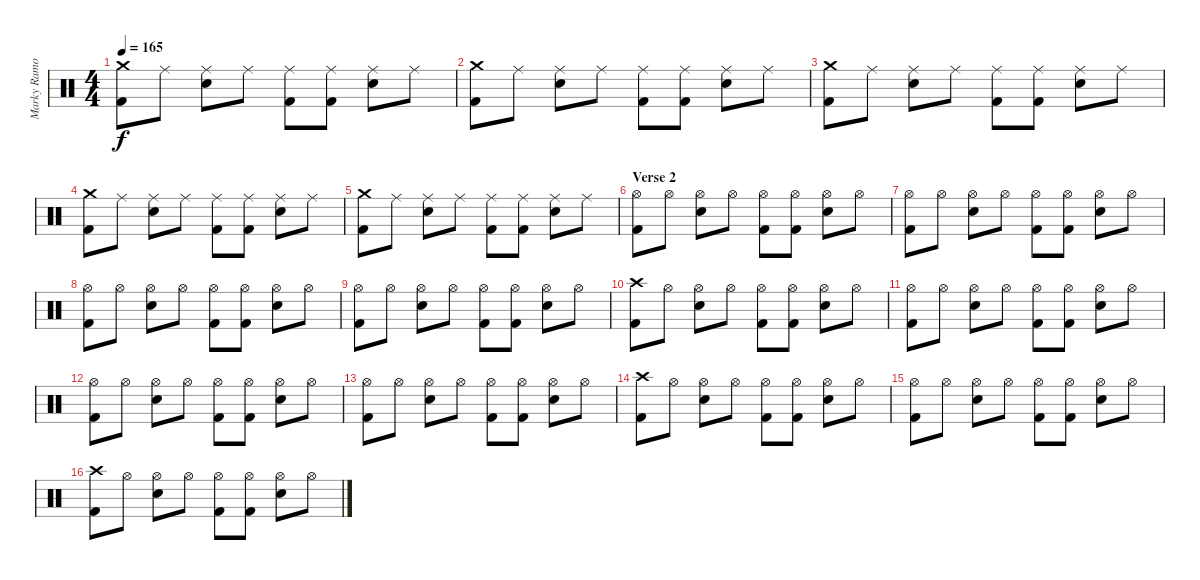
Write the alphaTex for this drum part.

\track ("Marky Ramone" "Marky Ramo") {instrument percussion}
\staff {score}
\articulation defaults
\ts (4 4)
\tempo 165
\clef neutral
\ks c
("Crash medium (hit)" "Kick (hit) 2").8{dy f} "Ride (middle)".8 ("Ride (middle)" "Snare (hit) 2").8 "Ride (middle)".8 ("Ride (middle)" "Kick (hit) 2").8 ("Ride (middle)" "Kick (hit) 2").8 ("Ride (middle)" "Snare (hit) 2").8 "Ride (middle)".8 |
("Crash medium (hit)" "Kick (hit) 2").8 "Ride (middle)".8 ("Ride (middle)" "Snare (hit) 2").8 "Ride (middle)".8 ("Ride (middle)" "Kick (hit) 2").8 ("Ride (middle)" "Kick (hit) 2").8 ("Ride (middle)" "Snare (hit) 2").8 "Ride (middle)".8 |
("Crash medium (hit)" "Kick (hit) 2").8 "Ride (middle)".8 ("Ride (middle)" "Snare (hit) 2").8 "Ride (middle)".8 ("Ride (middle)" "Kick (hit) 2").8 ("Ride (middle)" "Kick (hit) 2").8 ("Ride (middle)" "Snare (hit) 2").8 "Ride (middle)".8 |
("Crash medium (hit)" "Kick (hit) 2").8 "Ride (middle)".8 ("Ride (middle)" "Snare (hit) 2").8 "Ride (middle)".8 ("Ride (middle)" "Kick (hit) 2").8 ("Ride (middle)" "Kick (hit) 2").8 ("Ride (middle)" "Snare (hit) 2").8 "Ride (middle)".8 |
("Crash medium (hit)" "Kick (hit) 2").8 "Ride (middle)".8 ("Ride (middle)" "Snare (hit) 2").8 "Ride (middle)".8 ("Ride (middle)" "Kick (hit) 2").8 ("Ride (middle)" "Kick (hit) 2").8 ("Ride (middle)" "Snare (hit) 2").8 "Ride (middle)".8 |
\section ("" "Verse 2")
("Hi-Hat (open)" "Kick (hit) 2").8 "Hi-Hat (open)".8 ("Hi-Hat (open)" "Snare (hit) 2").8 "Hi-Hat (open)".8 ("Hi-Hat (open)" "Kick (hit) 2").8 ("Hi-Hat (open)" "Kick (hit) 2").8 ("Hi-Hat (open)" "Snare (hit) 2").8 "Hi-Hat (open)".8 |
("Hi-Hat (open)" "Kick (hit) 2").8 "Hi-Hat (open)".8 ("Hi-Hat (open)" "Snare (hit) 2").8 "Hi-Hat (open)".8 ("Hi-Hat (open)" "Kick (hit) 2").8 ("Hi-Hat (open)" "Kick (hit) 2").8 ("Hi-Hat (open)" "Snare (hit) 2").8 "Hi-Hat (open)".8 |
("Hi-Hat (open)" "Kick (hit) 2").8 "Hi-Hat (open)".8 ("Hi-Hat (open)" "Snare (hit) 2").8 "Hi-Hat (open)".8 ("Hi-Hat (open)" "Kick (hit) 2").8 ("Hi-Hat (open)" "Kick (hit) 2").8 ("Hi-Hat (open)" "Snare (hit) 2").8 "Hi-Hat (open)".8 |
("Hi-Hat (open)" "Kick (hit) 2").8 "Hi-Hat (open)".8 ("Hi-Hat (open)" "Snare (hit) 2").8 "Hi-Hat (open)".8 ("Hi-Hat (open)" "Kick (hit) 2").8 ("Hi-Hat (open)" "Kick (hit) 2").8 ("Hi-Hat (open)" "Snare (hit) 2").8 "Hi-Hat (open)".8 |
("Crash high (hit)" "Kick (hit) 2").8 "Hi-Hat (open)".8 ("Hi-Hat (open)" "Snare (hit) 2").8 "Hi-Hat (open)".8 ("Hi-Hat (open)" "Kick (hit) 2").8 ("Hi-Hat (open)" "Kick (hit) 2").8 ("Hi-Hat (open)" "Snare (hit) 2").8 "Hi-Hat (open)".8 |
("Hi-Hat (open)" "Kick (hit) 2").8 "Hi-Hat (open)".8 ("Hi-Hat (open)" "Snare (hit) 2").8 "Hi-Hat (open)".8 ("Hi-Hat (open)" "Kick (hit) 2").8 ("Hi-Hat (open)" "Kick (hit) 2").8 ("Hi-Hat (open)" "Snare (hit) 2").8 "Hi-Hat (open)".8 |
("Hi-Hat (open)" "Kick (hit) 2").8 "Hi-Hat (open)".8 ("Hi-Hat (open)" "Snare (hit) 2").8 "Hi-Hat (open)".8 ("Hi-Hat (open)" "Kick (hit) 2").8 ("Hi-Hat (open)" "Kick (hit) 2").8 ("Hi-Hat (open)" "Snare (hit) 2").8 "Hi-Hat (open)".8 |
("Hi-Hat (open)" "Kick (hit) 2").8 "Hi-Hat (open)".8 ("Hi-Hat (open)" "Snare (hit) 2").8 "Hi-Hat (open)".8 ("Hi-Hat (open)" "Kick (hit) 2").8 ("Hi-Hat (open)" "Kick (hit) 2").8 ("Hi-Hat (open)" "Snare (hit) 2").8 "Hi-Hat (open)".8 |
("Crash high (hit)" "Kick (hit) 2").8 "Hi-Hat (open)".8 ("Hi-Hat (open)" "Snare (hit) 2").8 "Hi-Hat (open)".8 ("Hi-Hat (open)" "Kick (hit) 2").8 ("Hi-Hat (open)" "Kick (hit) 2").8 ("Hi-Hat (open)" "Snare (hit) 2").8 "Hi-Hat (open)".8 |
("Hi-Hat (open)" "Kick (hit) 2").8 "Hi-Hat (open)".8 ("Hi-Hat (open)" "Snare (hit) 2").8 "Hi-Hat (open)".8 ("Hi-Hat (open)" "Kick (hit) 2").8 ("Hi-Hat (open)" "Kick (hit) 2").8 ("Hi-Hat (open)" "Snare (hit) 2").8 "Hi-Hat (open)".8 |
("Crash high (hit)" "Kick (hit) 2").8 "Hi-Hat (open)".8 ("Hi-Hat (open)" "Snare (hit) 2").8 "Hi-Hat (open)".8 ("Hi-Hat (open)" "Kick (hit) 2").8 ("Hi-Hat (open)" "Kick (hit) 2").8 ("Hi-Hat (open)" "Snare (hit) 2").8 "Hi-Hat (open)".8
